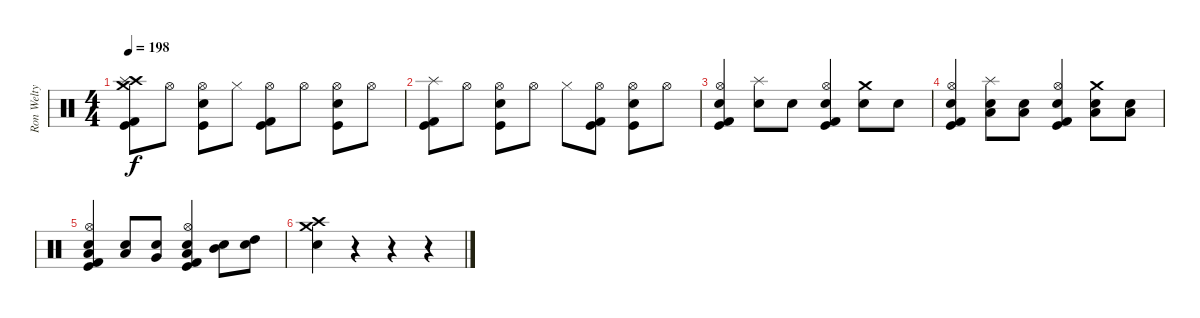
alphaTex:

\track ("Ron Welty" "Ron Welty") {instrument percussion}
\staff {score}
\articulation defaults
\ts (4 4)
\tempo 198
\clef neutral
\ks c
("Crash medium (hit)" "Crash high (hit)" "Splash (hit)" "Kick (hit) 2" "Kick (hit)").8{dy f} "Hi-Hat (open)".8 ("Hi-Hat (open)" "Electric Snare (hit)" "Kick (hit)").8 "Hi-Hat (closed)".8 ("Hi-Hat (open)" "Kick (hit) 2" "Kick (hit)").8 "Hi-Hat (open)".8 ("Hi-Hat (open)" "Electric Snare (hit)" "Kick (hit)").8 "Hi-Hat (open)".8 |
("Splash (hit)" "Kick (hit) 2" "Kick (hit)").8 "Hi-Hat (open)".8 ("Hi-Hat (open)" "Electric Snare (hit)" "Kick (hit)").8 "Hi-Hat (open)".8 "Hi-Hat (closed)".8 ("Hi-Hat (open)" "Kick (hit) 2" "Kick (hit)").8 ("Hi-Hat (open)" "Electric Snare (hit)" "Kick (hit)").8 "Hi-Hat (open)".8 |
("Hi-Hat (open)" "Electric Snare (hit)" "Kick (hit) 2" "Kick (hit)").4 ("Splash (hit)" "Electric Snare (hit)").8 "Electric Snare (hit)".8 ("Hi-Hat (open)" "Electric Snare (hit)" "Kick (hit) 2" "Kick (hit)").4 ("Crash medium (hit)" "Electric Snare (hit)").8 "Electric Snare (hit)".8 |
("Hi-Hat (open)" "Electric Snare (hit)" "Kick (hit) 2" "Kick (hit)").4 ("Splash (hit)" "Electric Snare (hit)" "Low Tom (hit)").8 ("Electric Snare (hit)" "Low Tom (hit)").8 ("Hi-Hat (open)" "Electric Snare (hit)" "Kick (hit) 2" "Kick (hit)").4 ("Crash medium (hit)" "Electric Snare (hit)" "Low Tom (hit)").8 ("Electric Snare (hit)" "Low Tom (hit)").8 |
("Hi-Hat (open)" "Electric Snare (hit)" "Low Tom (hit)" "Kick (hit) 2" "Kick (hit)").4 ("Electric Snare (hit)" "Low Floor Tom (hit)").8 ("Electric Snare (hit)" "Very Low Tom (hit)").8 ("Hi-Hat (open)" "Electric Snare (hit)" "Low Tom (hit)" "Kick (hit) 2" "Kick (hit)").4 ("Electric Snare (hit)" "Mid Tom (hit)").8 ("Electric Snare (hit)" "High Tom (hit)").8 |
("Crash medium (hit)" "Electric Snare (hit)" "Crash high (hit)").4 r.4 r.4 r.4
